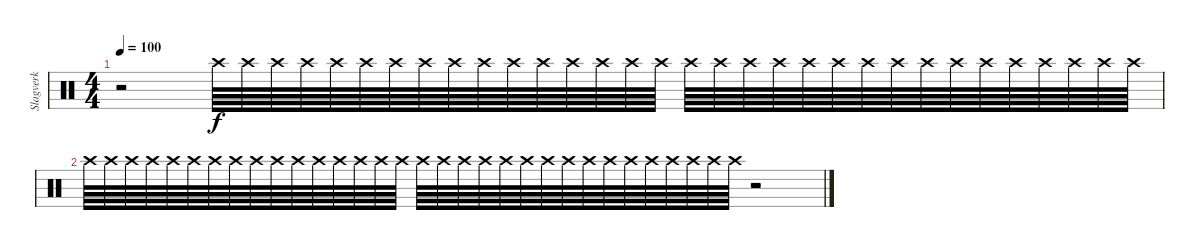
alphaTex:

\track ("Slagverk" "Slagverk") {instrument percussion}
\staff {score}
\articulation defaults
\ts (4 4)
\tempo 100
\clef neutral
\ks c
r.2{dy f volume 0} "Crash high (hit)".64{volume 5} "Crash high (hit)".64 "Crash high (hit)".64 "Crash high (hit)".64 "Crash high (hit)".64 "Crash high (hit)".64 "Crash high (hit)".64 "Crash high (hit)".64 "Crash high (hit)".64 "Crash high (hit)".64 "Crash high (hit)".64 "Crash high (hit)".64 "Crash high (hit)".64 "Crash high (hit)".64 "Crash high (hit)".64 "Crash high (hit)".64 "Crash high (hit)".64 "Crash high (hit)".64 "Crash high (hit)".64 "Crash high (hit)".64 "Crash high (hit)".64 "Crash high (hit)".64 "Crash high (hit)".64 "Crash high (hit)".64 "Crash high (hit)".64 "Crash high (hit)".64 "Crash high (hit)".64 "Crash high (hit)".64 "Crash high (hit)".64 "Crash high (hit)".64 "Crash high (hit)".64 "Crash high (hit)".64 |
"Crash high (hit)".64{volume 0} "Crash high (hit)".64 "Crash high (hit)".64 "Crash high (hit)".64 "Crash high (hit)".64 "Crash high (hit)".64 "Crash high (hit)".64 "Crash high (hit)".64 "Crash high (hit)".64 "Crash high (hit)".64 "Crash high (hit)".64 "Crash high (hit)".64 "Crash high (hit)".64 "Crash high (hit)".64 "Crash high (hit)".64 "Crash high (hit)".64 "Crash high (hit)".64 "Crash high (hit)".64 "Crash high (hit)".64 "Crash high (hit)".64 "Crash high (hit)".64 "Crash high (hit)".64 "Crash high (hit)".64 "Crash high (hit)".64 "Crash high (hit)".64 "Crash high (hit)".64 "Crash high (hit)".64 "Crash high (hit)".64 "Crash high (hit)".64 "Crash high (hit)".64 "Crash high (hit)".64 "Crash high (hit)".64 r.2
